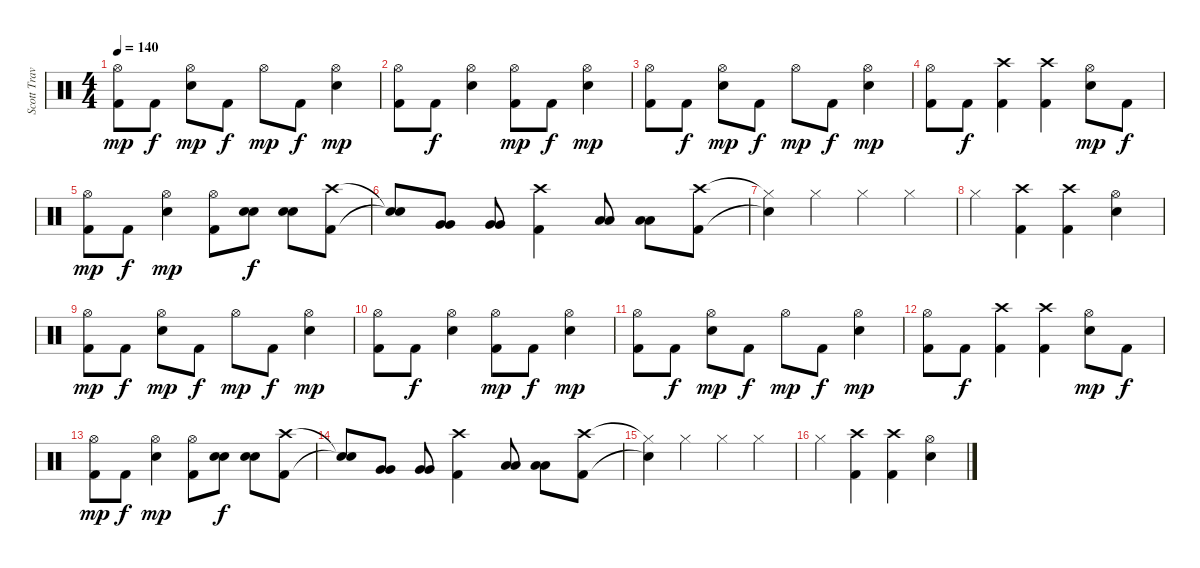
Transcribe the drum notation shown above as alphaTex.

\track ("Scott Travis" "Scott Trav") {instrument percussion}
\staff {score}
\articulation defaults
\ts (4 4)
\tempo 140
\clef neutral
\ks c
("Hi-Hat (open)" "Kick (hit) 2").8{dy mp} "Kick (hit) 2".8{dy f} ("Hi-Hat (open)" "Snare (hit) 2").8{dy mp} "Kick (hit) 2".8{dy f} "Hi-Hat (open)".8{dy mp} "Kick (hit) 2".8{dy f} ("Hi-Hat (open)" "Snare (hit) 2").4{dy mp} |
("Hi-Hat (open)" "Kick (hit) 2").8 "Kick (hit) 2".8{dy f} ("Hi-Hat (open)" "Snare (hit) 2").4 ("Hi-Hat (open)" "Kick (hit) 2").8{dy mp} "Kick (hit) 2".8{dy f} ("Hi-Hat (open)" "Snare (hit) 2").4{dy mp} |
("Hi-Hat (open)" "Kick (hit) 2").8 "Kick (hit) 2".8{dy f} ("Hi-Hat (open)" "Snare (hit) 2").8{dy mp} "Kick (hit) 2".8{dy f} "Hi-Hat (open)".8{dy mp} "Kick (hit) 2".8{dy f} ("Hi-Hat (open)" "Snare (hit) 2").4{dy mp} |
("Hi-Hat (open)" "Kick (hit) 2").8 "Kick (hit) 2".8{dy f} ("Crash high (hit)" "Kick (hit) 2").4 ("Crash high (hit)" "Kick (hit) 2").4 ("Hi-Hat (open)" "Snare (hit) 2").8{dy mp} "Kick (hit) 2".8{dy f} |
("Hi-Hat (open)" "Kick (hit) 2").8{dy mp} "Kick (hit) 2".8{dy f} ("Hi-Hat (open)" "Snare (hit) 2").4{dy mp} ("Hi-Hat (open)" "Kick (hit) 2").8 ("Snare (hit) 2" "Snare (hit) 2").8{dy f} ("Snare (hit) 2" "Snare (hit) 2").8 ("Crash high (hit)" "Kick (hit) 2").8 |
("Snare (hit)"{t} "Snare (hit)"{t}).8 ("Very Low Tom (hit)" "Very Low Tom (hit)").8 ("Very Low Tom (hit)" "Very Low Tom (hit)").8 ("Crash high (hit)" "Kick (hit) 2").4 ("Low Tom (hit)" "Low Tom (hit)").8 ("Low Tom (hit)" "Low Tom (hit)").8 ("Crash high (hit)" "Kick (hit) 2").8 |
("Hi-Hat (closed)"{t} "Snare (hit)"{t}).4 "Hi-Hat (closed)".4 "Hi-Hat (closed)".4 "Hi-Hat (closed)".4 |
"Hi-Hat (closed)".4 ("Crash high (hit)" "Kick (hit) 2").4 ("Crash high (hit)" "Kick (hit) 2").4 ("Hi-Hat (open)" "Snare (hit) 2").4 |
("Hi-Hat (open)" "Kick (hit) 2").8{dy mp} "Kick (hit) 2".8{dy f} ("Hi-Hat (open)" "Snare (hit) 2").8{dy mp} "Kick (hit) 2".8{dy f} "Hi-Hat (open)".8{dy mp} "Kick (hit) 2".8{dy f} ("Hi-Hat (open)" "Snare (hit) 2").4{dy mp} |
("Hi-Hat (open)" "Kick (hit) 2").8 "Kick (hit) 2".8{dy f} ("Hi-Hat (open)" "Snare (hit) 2").4 ("Hi-Hat (open)" "Kick (hit) 2").8{dy mp} "Kick (hit) 2".8{dy f} ("Hi-Hat (open)" "Snare (hit) 2").4{dy mp} |
("Hi-Hat (open)" "Kick (hit) 2").8 "Kick (hit) 2".8{dy f} ("Hi-Hat (open)" "Snare (hit) 2").8{dy mp} "Kick (hit) 2".8{dy f} "Hi-Hat (open)".8{dy mp} "Kick (hit) 2".8{dy f} ("Hi-Hat (open)" "Snare (hit) 2").4{dy mp} |
("Hi-Hat (open)" "Kick (hit) 2").8 "Kick (hit) 2".8{dy f} ("Crash high (hit)" "Kick (hit) 2").4 ("Crash high (hit)" "Kick (hit) 2").4 ("Hi-Hat (open)" "Snare (hit) 2").8{dy mp} "Kick (hit) 2".8{dy f} |
("Hi-Hat (open)" "Kick (hit) 2").8{dy mp} "Kick (hit) 2".8{dy f} ("Hi-Hat (open)" "Snare (hit) 2").4{dy mp} ("Hi-Hat (open)" "Kick (hit) 2").8 ("Snare (hit) 2" "Snare (hit) 2").8{dy f} ("Snare (hit) 2" "Snare (hit) 2").8 ("Crash high (hit)" "Kick (hit) 2").8 |
("Snare (hit)"{t} "Snare (hit)"{t}).8 ("Very Low Tom (hit)" "Very Low Tom (hit)").8 ("Very Low Tom (hit)" "Very Low Tom (hit)").8 ("Crash high (hit)" "Kick (hit) 2").4 ("Low Tom (hit)" "Low Tom (hit)").8 ("Low Tom (hit)" "Low Tom (hit)").8 ("Crash high (hit)" "Kick (hit) 2").8 |
("Hi-Hat (closed)"{t} "Snare (hit)"{t}).4 "Hi-Hat (closed)".4 "Hi-Hat (closed)".4 "Hi-Hat (closed)".4 |
"Hi-Hat (closed)".4{volume 10} ("Crash high (hit)" "Kick (hit) 2").4 ("Crash high (hit)" "Kick (hit) 2").4 ("Hi-Hat (open)" "Snare (hit) 2").4
